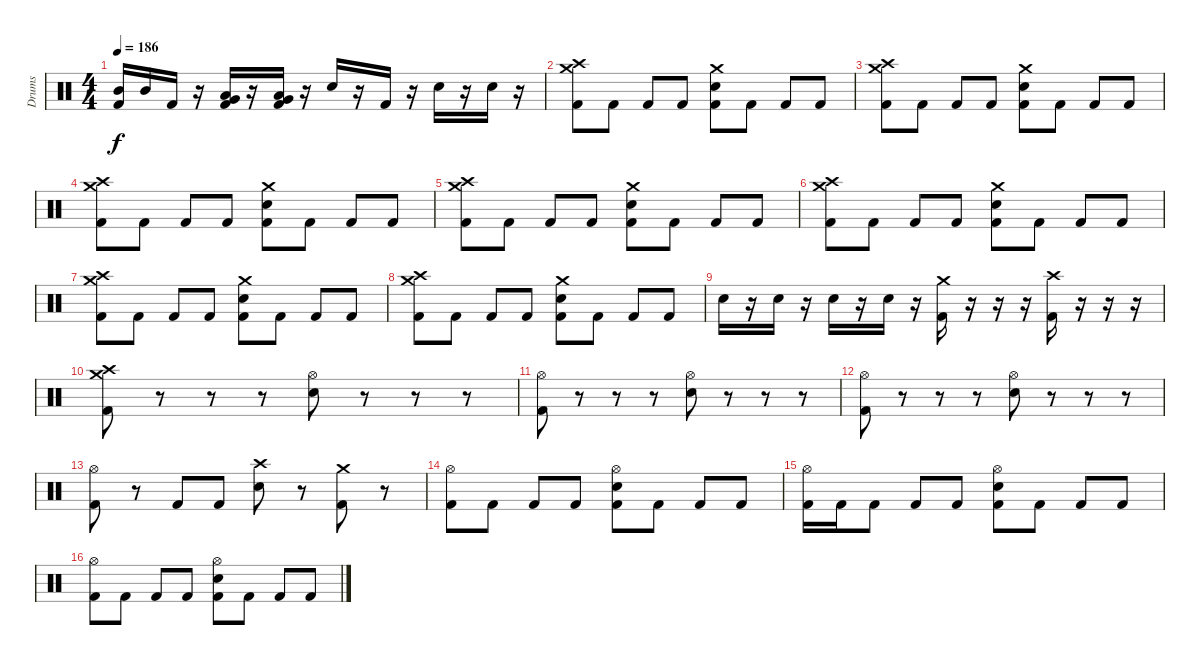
\track ("Drums" "Drums") {instrument percussion}
\staff {score}
\articulation defaults
\ts (4 4)
\tempo 186
\clef neutral
\ks c
("Mid Tom (hit)" "Kick (hit) 2").16{dy f} "Mid Tom (hit)".16 "Kick (hit) 2".16 r.16 ("Very Low Tom (hit)" "Low Tom (hit)" "Kick (hit) 2").16 r.16 ("Very Low Tom (hit)" "Low Tom (hit)" "Kick (hit) 2").16 r.16 "Snare (hit) 2".16 r.16 "Kick (hit) 2".16 r.16 "Snare (hit) 2".16 r.16 "Snare (hit) 2".16 r.16 |
("Crash high (hit)" "Crash medium (hit)" "Kick (hit) 2").8 "Kick (hit) 2".8 "Kick (hit) 2".8 "Kick (hit) 2".8 ("Crash medium (hit)" "Snare (hit) 2" "Kick (hit) 2").8 "Kick (hit) 2".8 "Kick (hit) 2".8 "Kick (hit) 2".8 |
("Crash high (hit)" "Crash medium (hit)" "Kick (hit) 2").8 "Kick (hit) 2".8 "Kick (hit) 2".8 "Kick (hit) 2".8 ("Crash medium (hit)" "Snare (hit) 2" "Kick (hit) 2").8 "Kick (hit) 2".8 "Kick (hit) 2".8 "Kick (hit) 2".8 |
("Crash high (hit)" "Crash medium (hit)" "Kick (hit) 2").8 "Kick (hit) 2".8 "Kick (hit) 2".8 "Kick (hit) 2".8 ("Crash medium (hit)" "Snare (hit) 2" "Kick (hit) 2").8 "Kick (hit) 2".8 "Kick (hit) 2".8 "Kick (hit) 2".8 |
("Crash high (hit)" "Crash medium (hit)" "Kick (hit) 2").8 "Kick (hit) 2".8 "Kick (hit) 2".8 "Kick (hit) 2".8 ("Crash medium (hit)" "Snare (hit) 2" "Kick (hit) 2").8 "Kick (hit) 2".8 "Kick (hit) 2".8 "Kick (hit) 2".8 |
("Crash high (hit)" "Crash medium (hit)" "Kick (hit) 2").8 "Kick (hit) 2".8 "Kick (hit) 2".8 "Kick (hit) 2".8 ("Crash medium (hit)" "Snare (hit) 2" "Kick (hit) 2").8 "Kick (hit) 2".8 "Kick (hit) 2".8 "Kick (hit) 2".8 |
("Crash high (hit)" "Crash medium (hit)" "Kick (hit) 2").8 "Kick (hit) 2".8 "Kick (hit) 2".8 "Kick (hit) 2".8 ("Crash medium (hit)" "Snare (hit) 2" "Kick (hit) 2").8 "Kick (hit) 2".8 "Kick (hit) 2".8 "Kick (hit) 2".8 |
("Crash high (hit)" "Crash medium (hit)" "Kick (hit) 2").8 "Kick (hit) 2".8 "Kick (hit) 2".8 "Kick (hit) 2".8 ("Crash medium (hit)" "Snare (hit) 2" "Kick (hit) 2").8 "Kick (hit) 2".8 "Kick (hit) 2".8 "Kick (hit) 2".8 |
"Snare (hit) 2".16 r.16 "Snare (hit) 2".16 r.16 "Snare (hit) 2".16 r.16 "Snare (hit) 2".16 r.16 ("Crash medium (hit)" "Kick (hit) 2").16 r.16 r.16 r.16 ("Crash high (hit)" "Kick (hit) 2").16 r.16 r.16 r.16 |
("Crash high (hit)" "Crash medium (hit)" "Kick (hit) 2").8 r.8 r.8 r.8 ("Hi-Hat (open)" "Snare (hit) 2").8 r.8 r.8 r.8 |
("Hi-Hat (open)" "Kick (hit) 2").8 r.8 r.8 r.8 ("Hi-Hat (open)" "Snare (hit) 2").8 r.8 r.8 r.8 |
("Hi-Hat (open)" "Kick (hit) 2").8 r.8 r.8 r.8 ("Hi-Hat (open)" "Snare (hit) 2").8 r.8 r.8 r.8 |
("Hi-Hat (open)" "Kick (hit) 2").8 r.8 "Kick (hit) 2".8 "Kick (hit) 2".8 ("Crash high (hit)" "Snare (hit) 2").8 r.8 ("Crash medium (hit)" "Kick (hit) 2").8 r.8 |
("Hi-Hat (open)" "Kick (hit) 2").8 "Kick (hit) 2".8 "Kick (hit) 2".8 "Kick (hit) 2".8 ("Hi-Hat (open)" "Snare (hit) 2" "Kick (hit) 2").8 "Kick (hit) 2".8 "Kick (hit) 2".8 "Kick (hit) 2".8 |
("Hi-Hat (open)" "Kick (hit) 2").16 "Kick (hit) 2".16 "Kick (hit) 2".8 "Kick (hit) 2".8 "Kick (hit) 2".8 ("Hi-Hat (open)" "Snare (hit) 2" "Kick (hit) 2").8 "Kick (hit) 2".8 "Kick (hit) 2".8 "Kick (hit) 2".8 |
("Hi-Hat (open)" "Kick (hit) 2").8 "Kick (hit) 2".8 "Kick (hit) 2".8 "Kick (hit) 2".8 ("Hi-Hat (open)" "Snare (hit) 2" "Kick (hit) 2").8 "Kick (hit) 2".8 "Kick (hit) 2".8 "Kick (hit) 2".8
